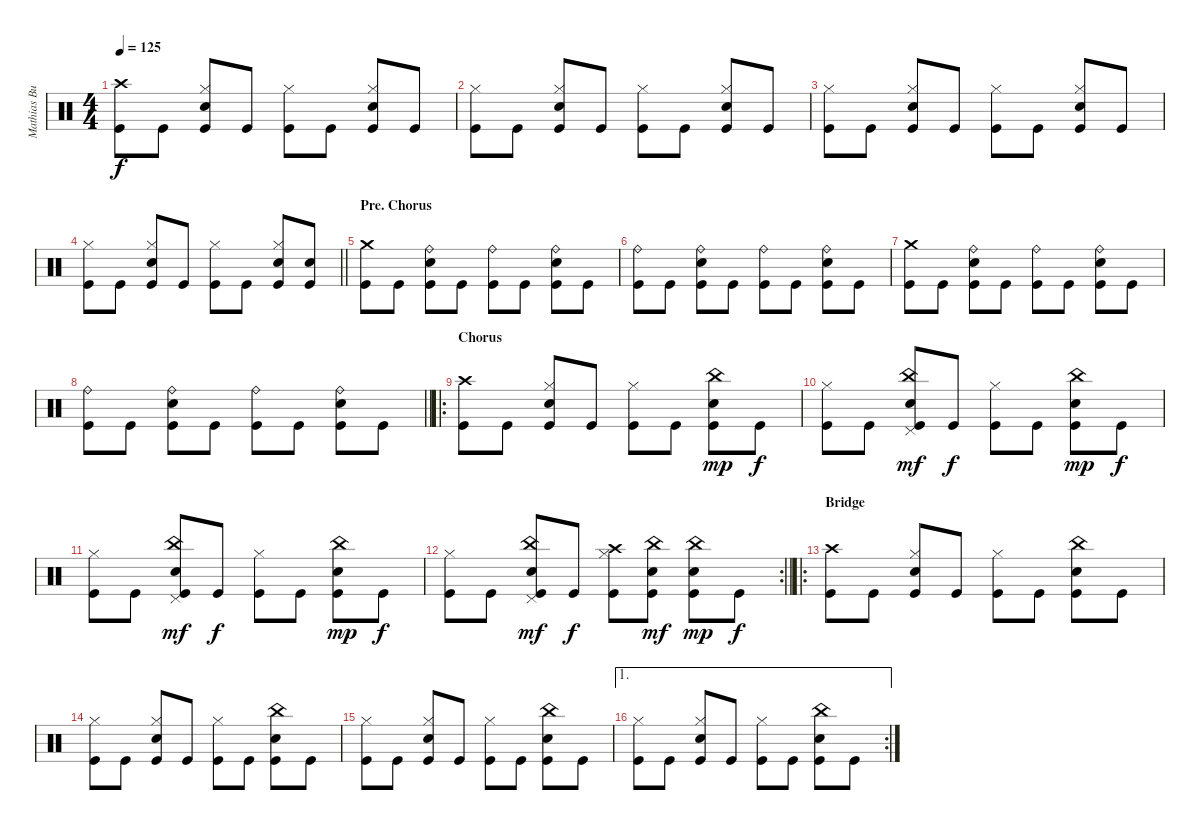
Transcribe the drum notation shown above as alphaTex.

\track ("Mathias Burchardt" "Mathias Bu") {instrument percussion}
\staff {score}
\articulation defaults
\ts (4 4)
\tempo 125
\clef neutral
\ks c
("Crash high (hit)" "Kick (hit)").8{dy f} "Kick (hit)".8 ("Hi-Hat (closed)" "Snare (hit) 2" "Kick (hit)").8 "Kick (hit)".8 ("Hi-Hat (closed)" "Kick (hit)").8 "Kick (hit)".8 ("Hi-Hat (closed)" "Snare (hit) 2" "Kick (hit)").8 "Kick (hit)".8 |
("Hi-Hat (closed)" "Kick (hit)").8 "Kick (hit)".8 ("Hi-Hat (closed)" "Snare (hit) 2" "Kick (hit)").8 "Kick (hit)".8 ("Hi-Hat (closed)" "Kick (hit)").8 "Kick (hit)".8 ("Hi-Hat (closed)" "Snare (hit) 2" "Kick (hit)").8 "Kick (hit)".8 |
("Hi-Hat (closed)" "Kick (hit)").8 "Kick (hit)".8 ("Hi-Hat (closed)" "Snare (hit) 2" "Kick (hit)").8 "Kick (hit)".8 ("Hi-Hat (closed)" "Kick (hit)").8 "Kick (hit)".8 ("Hi-Hat (closed)" "Snare (hit) 2" "Kick (hit)").8 "Kick (hit)".8 |
\barLineRight lightlight
("Hi-Hat (closed)" "Kick (hit)").8 "Kick (hit)".8 ("Hi-Hat (closed)" "Snare (hit) 2" "Kick (hit)").8 "Kick (hit)".8 ("Hi-Hat (closed)" "Kick (hit)").8 "Kick (hit)".8 ("Hi-Hat (closed)" "Snare (hit) 2" "Kick (hit)").8 ("Snare (hit) 2" "Kick (hit)").8 |
\section ("" "Pre. Chorus")
("Crash medium (hit)" "Kick (hit)").8 "Kick (hit)".8 ("Ride (bell)" "Snare (hit) 2" "Kick (hit)").8 "Kick (hit)".8 ("Ride (bell)" "Kick (hit)").8 "Kick (hit)".8 ("Ride (bell)" "Snare (hit) 2" "Kick (hit)").8 "Kick (hit)".8 |
("Ride (bell)" "Kick (hit)").8 "Kick (hit)".8 ("Ride (bell)" "Snare (hit) 2" "Kick (hit)").8 "Kick (hit)".8 ("Ride (bell)" "Kick (hit)").8 "Kick (hit)".8 ("Ride (bell)" "Snare (hit) 2" "Kick (hit)").8 "Kick (hit)".8 |
("Crash medium (hit)" "Kick (hit)").8 "Kick (hit)".8 ("Ride (bell)" "Snare (hit) 2" "Kick (hit)").8 "Kick (hit)".8 ("Ride (bell)" "Kick (hit)").8 "Kick (hit)".8 ("Ride (bell)" "Snare (hit) 2" "Kick (hit)").8 "Kick (hit)".8 |
\barLineRight lightlight
("Ride (bell)" "Kick (hit)").8 "Kick (hit)".8 ("Ride (bell)" "Snare (hit) 2" "Kick (hit)").8 "Kick (hit)".8 ("Ride (bell)" "Kick (hit)").8 "Kick (hit)".8 ("Ride (bell)" "Snare (hit) 2" "Kick (hit)").8 "Kick (hit)".8 |
\ro
\section ("" "Chorus")
("Crash high (hit)" "Kick (hit)").8 "Kick (hit)".8 ("Hi-Hat (closed)" "Snare (hit) 2" "Kick (hit)").8 "Kick (hit)".8 ("Hi-Hat (closed)" "Kick (hit)").8 "Kick (hit)".8 ("China (hit)" "Snare (hit) 2" "Kick (hit)").8{dy mp} "Kick (hit)".8{dy f} |
("Hi-Hat (closed)" "Kick (hit)").8 "Kick (hit)".8 ("China (hit)" "Pedal Hi-Hat (hit)" "Snare (hit) 2" "Kick (hit)").8{dy mf} "Kick (hit)".8{dy f} ("Hi-Hat (closed)" "Kick (hit)").8 "Kick (hit)".8 ("China (hit)" "Snare (hit) 2" "Kick (hit)").8{dy mp} "Kick (hit)".8{dy f} |
("Hi-Hat (closed)" "Kick (hit)").8 "Kick (hit)".8 ("China (hit)" "Pedal Hi-Hat (hit)" "Snare (hit) 2" "Kick (hit)").8{dy mf} "Kick (hit)".8{dy f} ("Hi-Hat (closed)" "Kick (hit)").8 "Kick (hit)".8 ("China (hit)" "Snare (hit) 2" "Kick (hit)").8{dy mp} "Kick (hit)".8{dy f} |
\rc 2
\barLineRight lightlight
("Hi-Hat (closed)" "Kick (hit)").8 "Kick (hit)".8 ("China (hit)" "Pedal Hi-Hat (hit)" "Snare (hit) 2" "Kick (hit)").8{dy mf} "Kick (hit)".8{dy f} ("Crash high (hit)" "Hi-Hat (closed)" "Kick (hit)").8 ("China (hit)" "Snare (hit) 2" "Kick (hit)").8{dy mf} ("China (hit)" "Snare (hit) 2" "Kick (hit)").8{dy mp} "Kick (hit)".8{dy f} |
\ro
\section ("" "Bridge")
("Crash high (hit)" "Kick (hit)").8 "Kick (hit)".8 ("Hi-Hat (closed)" "Snare (hit) 2" "Kick (hit)").8 "Kick (hit)".8 ("Hi-Hat (closed)" "Kick (hit)").8 "Kick (hit)".8 ("China (hit)" "Snare (hit) 2" "Kick (hit)").8 "Kick (hit)".8 |
("Hi-Hat (closed)" "Kick (hit)").8 "Kick (hit)".8 ("Hi-Hat (closed)" "Snare (hit) 2" "Kick (hit)").8 "Kick (hit)".8 ("Hi-Hat (closed)" "Kick (hit)").8 "Kick (hit)".8 ("China (hit)" "Snare (hit) 2" "Kick (hit)").8 "Kick (hit)".8 |
("Hi-Hat (closed)" "Kick (hit)").8 "Kick (hit)".8 ("Hi-Hat (closed)" "Snare (hit) 2" "Kick (hit)").8 "Kick (hit)".8 ("Hi-Hat (closed)" "Kick (hit)").8 "Kick (hit)".8 ("China (hit)" "Snare (hit) 2" "Kick (hit)").8 "Kick (hit)".8 |
\ae 1
\rc 2
("Hi-Hat (closed)" "Kick (hit)").8 "Kick (hit)".8 ("Hi-Hat (closed)" "Snare (hit) 2" "Kick (hit)").8 "Kick (hit)".8 ("Hi-Hat (closed)" "Kick (hit)").8 "Kick (hit)".8 ("China (hit)" "Snare (hit) 2" "Kick (hit)").8 "Kick (hit)".8
